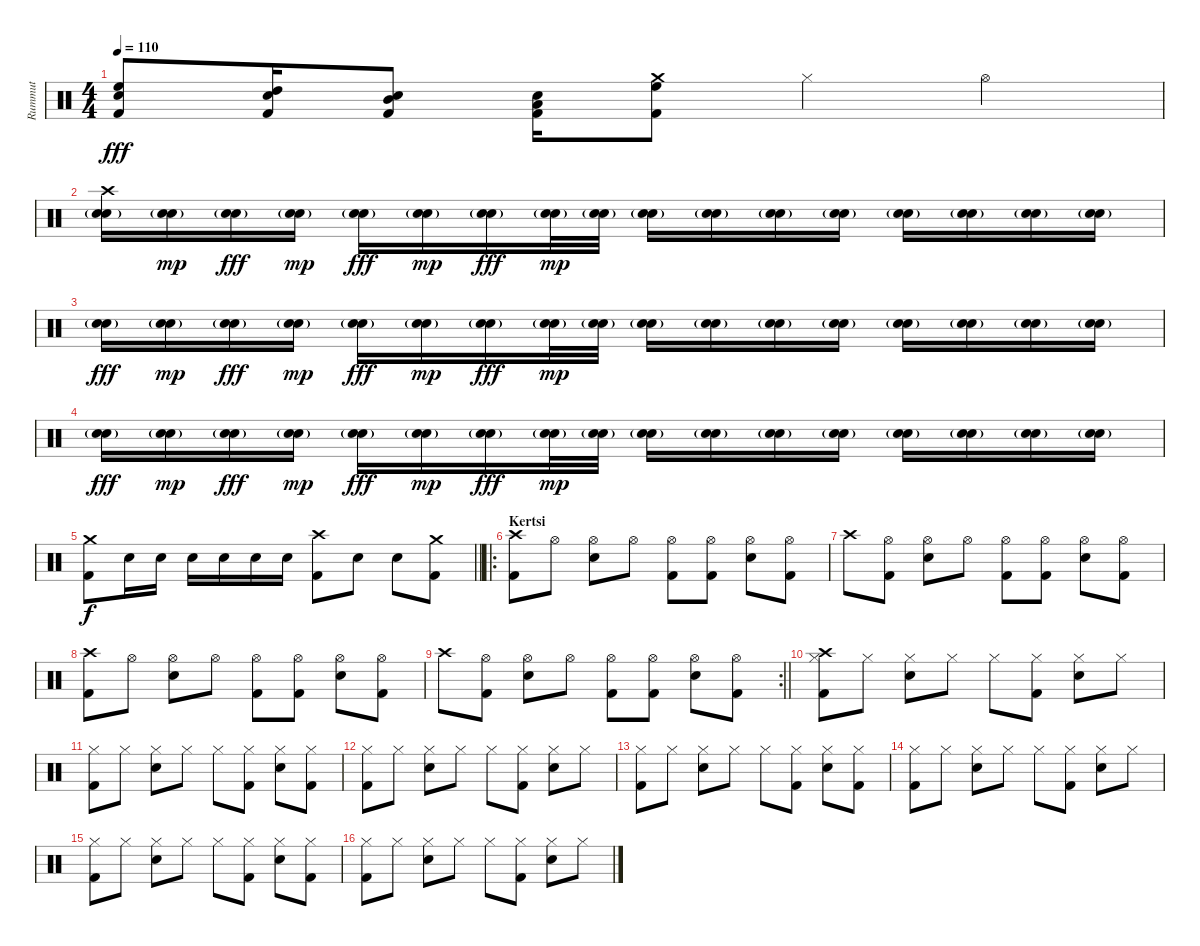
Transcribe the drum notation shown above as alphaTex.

\track ("Rummut" "Rummut") {instrument percussion}
\staff {score}
\articulation defaults
\ts (4 4)
\tempo 110
\clef neutral
\ks c
("Electric Snare (hit)" "High Floor Tom (hit)" "Kick (hit) 2").8{dy fff} ("Electric Snare (hit)" "High Tom (hit)" "Kick (hit) 2").16 ("Electric Snare (hit)" "Mid Tom (hit)" "Kick (hit) 2").8 ("Electric Snare (hit)" "Low Tom (hit)" "Kick (hit) 2").16 ("Crash medium (hit)" "High Floor Tom (hit)" "Kick (hit) 2").8 "Hi-Hat (closed)".4 "Hi-Hat (open)".4 |
("Crash high (hit)" "Snare (hit) 2"{g} "Electric Snare (hit)").16{volume 8} ("Snare (hit) 2"{g} "Electric Snare (hit)").16{dy mp} ("Snare (hit) 2"{g} "Electric Snare (hit)").16{dy fff} ("Snare (hit) 2"{g} "Electric Snare (hit)").16{dy mp} ("Snare (hit) 2"{g} "Electric Snare (hit)").16{dy fff} ("Snare (hit) 2"{g} "Electric Snare (hit)").16{dy mp} ("Snare (hit) 2"{g} "Electric Snare (hit)").16{dy fff} ("Snare (hit) 2"{g} "Electric Snare (hit)").32{dy mp} ("Snare (hit) 2"{g} "Electric Snare (hit)").32 ("Snare (hit) 2"{g} "Electric Snare (hit)").16 ("Snare (hit) 2"{g} "Electric Snare (hit)").16 ("Snare (hit) 2"{g} "Electric Snare (hit)").16 ("Snare (hit) 2"{g} "Electric Snare (hit)").16 ("Snare (hit) 2"{g} "Electric Snare (hit)").16 ("Snare (hit) 2"{g} "Electric Snare (hit)").16 ("Snare (hit) 2"{g} "Electric Snare (hit)").16 ("Snare (hit) 2"{g} "Electric Snare (hit)").16 |
("Snare (hit) 2"{g} "Electric Snare (hit)").16{dy fff} ("Snare (hit) 2"{g} "Electric Snare (hit)").16{dy mp} ("Snare (hit) 2"{g} "Electric Snare (hit)").16{dy fff} ("Snare (hit) 2"{g} "Electric Snare (hit)").16{dy mp} ("Snare (hit) 2"{g} "Electric Snare (hit)").16{dy fff} ("Snare (hit) 2"{g} "Electric Snare (hit)").16{dy mp} ("Snare (hit) 2"{g} "Electric Snare (hit)").16{dy fff} ("Snare (hit) 2"{g} "Electric Snare (hit)").32{dy mp} ("Snare (hit) 2"{g} "Electric Snare (hit)").32 ("Snare (hit) 2"{g} "Electric Snare (hit)").16 ("Snare (hit) 2"{g} "Electric Snare (hit)").16 ("Snare (hit) 2"{g} "Electric Snare (hit)").16 ("Snare (hit) 2"{g} "Electric Snare (hit)").16 ("Snare (hit) 2"{g} "Electric Snare (hit)").16 ("Snare (hit) 2"{g} "Electric Snare (hit)").16 ("Snare (hit) 2"{g} "Electric Snare (hit)").16 ("Snare (hit) 2"{g} "Electric Snare (hit)").16 |
("Snare (hit) 2"{g} "Electric Snare (hit)").16{dy fff volume 16} ("Snare (hit) 2"{g} "Electric Snare (hit)").16{dy mp} ("Snare (hit) 2"{g} "Electric Snare (hit)").16{dy fff} ("Snare (hit) 2"{g} "Electric Snare (hit)").16{dy mp} ("Snare (hit) 2"{g} "Electric Snare (hit)").16{dy fff} ("Snare (hit) 2"{g} "Electric Snare (hit)").16{dy mp} ("Snare (hit) 2"{g} "Electric Snare (hit)").16{dy fff} ("Snare (hit) 2"{g} "Electric Snare (hit)").32{dy mp} ("Snare (hit) 2"{g} "Electric Snare (hit)").32 ("Snare (hit) 2"{g} "Electric Snare (hit)").16 ("Snare (hit) 2"{g} "Electric Snare (hit)").16 ("Snare (hit) 2"{g} "Electric Snare (hit)").16 ("Snare (hit) 2"{g} "Electric Snare (hit)").16 ("Snare (hit) 2"{g} "Electric Snare (hit)").16 ("Snare (hit) 2"{g} "Electric Snare (hit)").16 ("Snare (hit) 2"{g} "Electric Snare (hit)").16 ("Snare (hit) 2"{g} "Electric Snare (hit)").16 |
\barLineRight lightlight
("Kick (hit) 2" "Crash medium (hit)").8{dy f} "Snare (hit) 2".16 "Snare (hit) 2".16 "Snare (hit) 2".16 "Snare (hit) 2".16 "Snare (hit) 2".16 "Snare (hit) 2".16 ("Kick (hit) 2" "Crash high (hit)").8 "Snare (hit) 2".8 "Snare (hit) 2".8 ("Kick (hit) 2" "Crash medium (hit)").8 |
\ro
\section ("" "Kertsi")
("Kick (hit) 2" "Crash high (hit)").8 "Hi-Hat (open)".8 ("Snare (hit) 2" "Hi-Hat (open)").8 "Hi-Hat (open)".8 ("Kick (hit) 2" "Hi-Hat (open)").8 ("Kick (hit) 2" "Hi-Hat (open)").8 ("Snare (hit) 2" "Hi-Hat (open)").8 ("Kick (hit) 2" "Hi-Hat (open)").8 |
"Crash high (hit)".8 ("Hi-Hat (open)" "Kick (hit) 2").8 ("Hi-Hat (open)" "Snare (hit) 2").8 "Hi-Hat (open)".8 ("Hi-Hat (open)" "Kick (hit) 2").8 ("Hi-Hat (open)" "Kick (hit) 2").8 ("Hi-Hat (open)" "Snare (hit) 2").8 ("Hi-Hat (open)" "Kick (hit) 2").8 |
("Kick (hit) 2" "Crash high (hit)").8 "Hi-Hat (open)".8 ("Snare (hit) 2" "Hi-Hat (open)").8 "Hi-Hat (open)".8 ("Kick (hit) 2" "Hi-Hat (open)").8 ("Kick (hit) 2" "Hi-Hat (open)").8 ("Snare (hit) 2" "Hi-Hat (open)").8 ("Kick (hit) 2" "Hi-Hat (open)").8 |
\rc 2
\barLineRight lightlight "Crash high (hit)".8
("Hi-Hat (open)" "Kick (hit) 2").8 ("Hi-Hat (open)" "Snare (hit) 2").8 "Hi-Hat (open)".8 ("Hi-Hat (open)" "Kick (hit) 2").8 ("Hi-Hat (open)" "Kick (hit) 2").8 ("Hi-Hat (open)" "Snare (hit) 2").8 ("Hi-Hat (open)" "Kick (hit) 2").8 |
("Hi-Hat (closed)" "Kick (hit) 2" "Crash high (hit)").8 "Hi-Hat (closed)".8 ("Hi-Hat (closed)" "Snare (hit) 2").8 "Hi-Hat (closed)".8 "Hi-Hat (closed)".8 ("Hi-Hat (closed)" "Kick (hit) 2").8 ("Hi-Hat (closed)" "Snare (hit) 2").8 "Hi-Hat (closed)".8 |
("Hi-Hat (closed)" "Kick (hit) 2").8 "Hi-Hat (closed)".8 ("Hi-Hat (closed)" "Snare (hit) 2").8 "Hi-Hat (closed)".8 "Hi-Hat (closed)".8 ("Hi-Hat (closed)" "Kick (hit) 2").8 ("Hi-Hat (closed)" "Snare (hit) 2").8 ("Hi-Hat (closed)" "Kick (hit) 2").8 |
("Hi-Hat (closed)" "Kick (hit) 2").8 "Hi-Hat (closed)".8 ("Hi-Hat (closed)" "Snare (hit) 2").8 "Hi-Hat (closed)".8 "Hi-Hat (closed)".8 ("Hi-Hat (closed)" "Kick (hit) 2").8 ("Hi-Hat (closed)" "Snare (hit) 2").8 "Hi-Hat (closed)".8 |
("Hi-Hat (closed)" "Kick (hit) 2").8 "Hi-Hat (closed)".8 ("Hi-Hat (closed)" "Snare (hit) 2").8 "Hi-Hat (closed)".8 "Hi-Hat (closed)".8 ("Hi-Hat (closed)" "Kick (hit) 2").8 ("Hi-Hat (closed)" "Snare (hit) 2").8 ("Hi-Hat (closed)" "Kick (hit) 2").8 |
("Hi-Hat (closed)" "Kick (hit) 2").8 "Hi-Hat (closed)".8 ("Hi-Hat (closed)" "Snare (hit) 2").8 "Hi-Hat (closed)".8 "Hi-Hat (closed)".8 ("Hi-Hat (closed)" "Kick (hit) 2").8 ("Hi-Hat (closed)" "Snare (hit) 2").8 "Hi-Hat (closed)".8 |
("Hi-Hat (closed)" "Kick (hit) 2").8 "Hi-Hat (closed)".8 ("Hi-Hat (closed)" "Snare (hit) 2").8 "Hi-Hat (closed)".8 "Hi-Hat (closed)".8 ("Hi-Hat (closed)" "Kick (hit) 2").8 ("Hi-Hat (closed)" "Snare (hit) 2").8 ("Hi-Hat (closed)" "Kick (hit) 2").8 |
("Hi-Hat (closed)" "Kick (hit) 2").8 "Hi-Hat (closed)".8 ("Hi-Hat (closed)" "Snare (hit) 2").8 "Hi-Hat (closed)".8 "Hi-Hat (closed)".8 ("Hi-Hat (closed)" "Kick (hit) 2").8 ("Hi-Hat (closed)" "Snare (hit) 2").8 "Hi-Hat (closed)".8
